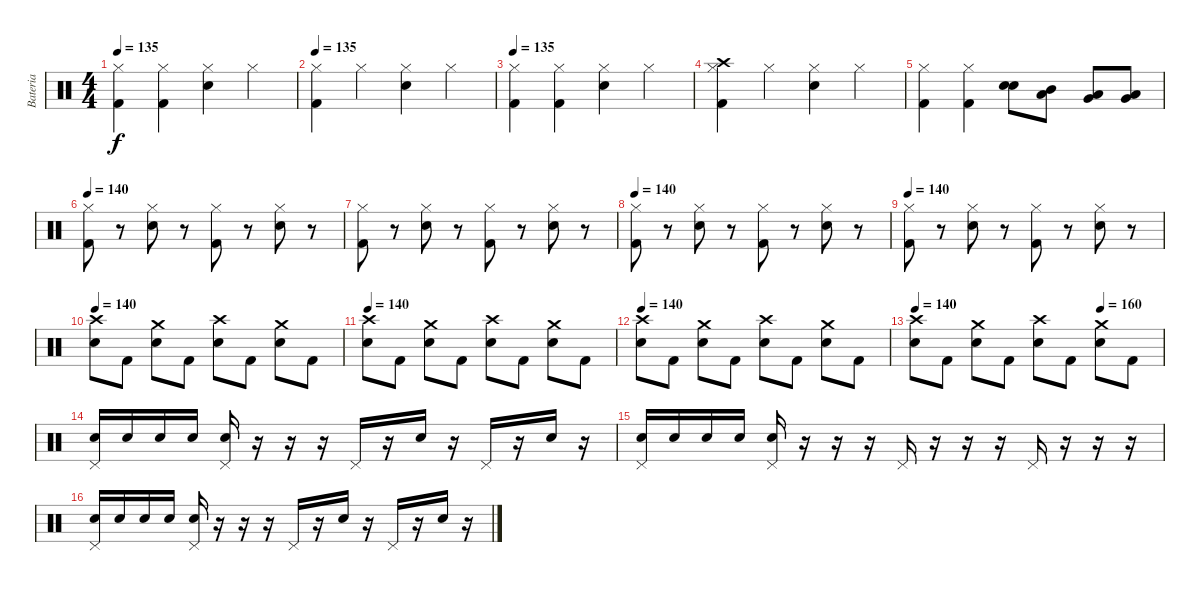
\track ("Bateria" "Bateria") {instrument percussion}
\staff {score}
\articulation defaults
\ts (4 4)
\tempo 135
\clef neutral
\ks c
("Hi-Hat (closed)" "Kick (hit) 2").4{dy f} ("Hi-Hat (closed)" "Kick (hit) 2").4 ("Hi-Hat (closed)" "Electric Snare (hit)").4 "Hi-Hat (closed)".4 |
\tempo 135
("Hi-Hat (closed)" "Kick (hit) 2").4 "Hi-Hat (closed)".4 ("Hi-Hat (closed)" "Electric Snare (hit)").4 "Hi-Hat (closed)".4 |
\tempo 135
("Hi-Hat (closed)" "Kick (hit) 2").4 ("Hi-Hat (closed)" "Kick (hit) 2").4 ("Hi-Hat (closed)" "Electric Snare (hit)").4 "Hi-Hat (closed)".4 |
("Hi-Hat (closed)" "Kick (hit) 2" "Crash high (hit)").4 "Hi-Hat (closed)".4 ("Hi-Hat (closed)" "Electric Snare (hit)").4 "Hi-Hat (closed)".4 |
("Hi-Hat (closed)" "Kick (hit) 2").4 ("Hi-Hat (closed)" "Kick (hit) 2").4 ("Electric Snare (hit)" "Electric Snare (hit)").8 ("Low Tom (hit)" "Mid Tom (hit)").8 ("Very Low Tom (hit)" "Low Tom (hit)").8 ("Low Floor Tom (hit)" "Very Low Tom (hit)").8 |
\tempo 140
("Hi-Hat (closed)" "Kick (hit) 2").8 r.8 ("Hi-Hat (closed)" "Electric Snare (hit)").8 r.8 ("Hi-Hat (closed)" "Kick (hit) 2").8 r.8 ("Hi-Hat (closed)" "Electric Snare (hit)").8 r.8 |
("Hi-Hat (closed)" "Kick (hit) 2").8 r.8 ("Hi-Hat (closed)" "Electric Snare (hit)").8 r.8 ("Hi-Hat (closed)" "Kick (hit) 2").8 r.8 ("Hi-Hat (closed)" "Electric Snare (hit)").8 r.8 |
\tempo 140
("Hi-Hat (closed)" "Kick (hit) 2").8 r.8 ("Hi-Hat (closed)" "Electric Snare (hit)").8 r.8 ("Hi-Hat (closed)" "Kick (hit) 2").8 r.8 ("Hi-Hat (closed)" "Electric Snare (hit)").8 r.8 |
\tempo 140
("Hi-Hat (closed)" "Kick (hit) 2").8 r.8 ("Hi-Hat (closed)" "Electric Snare (hit)").8 r.8 ("Hi-Hat (closed)" "Kick (hit) 2").8 r.8 ("Hi-Hat (closed)" "Electric Snare (hit)").8 r.8 |
\tempo 140
("Electric Snare (hit)" "Crash high (hit)").8 "Kick (hit) 2".8 ("Electric Snare (hit)" "Crash medium (hit)").8 "Kick (hit) 2".8 ("Electric Snare (hit)" "Crash high (hit)").8 "Kick (hit) 2".8 ("Electric Snare (hit)" "Crash medium (hit)").8 "Kick (hit) 2".8 |
\tempo 140
("Electric Snare (hit)" "Crash high (hit)").8 "Kick (hit) 2".8 ("Electric Snare (hit)" "Crash medium (hit)").8 "Kick (hit) 2".8 ("Electric Snare (hit)" "Crash high (hit)").8 "Kick (hit) 2".8 ("Electric Snare (hit)" "Crash medium (hit)").8 "Kick (hit) 2".8 |
\tempo 140
("Electric Snare (hit)" "Crash high (hit)").8 "Kick (hit) 2".8 ("Electric Snare (hit)" "Crash medium (hit)").8 "Kick (hit) 2".8 ("Electric Snare (hit)" "Crash high (hit)").8 "Kick (hit) 2".8 ("Electric Snare (hit)" "Crash medium (hit)").8 "Kick (hit) 2".8 |
\tempo (160 0.75)
\tempo 140
("Electric Snare (hit)" "Crash high (hit)").8 "Kick (hit) 2".8 ("Electric Snare (hit)" "Crash medium (hit)").8 "Kick (hit) 2".8 ("Electric Snare (hit)" "Crash high (hit)").8 "Kick (hit) 2".8 ("Electric Snare (hit)" "Crash medium (hit)").8 "Kick (hit) 2".8 |
("Pedal Hi-Hat (hit)" "Electric Snare (hit)").16 "Electric Snare (hit)".16 "Electric Snare (hit)".16 "Electric Snare (hit)".16 ("Pedal Hi-Hat (hit)" "Electric Snare (hit)").16 r.16 r.16 r.16 "Pedal Hi-Hat (hit)".16 r.16 "Electric Snare (hit)".16 r.16 "Pedal Hi-Hat (hit)".16 r.16 "Electric Snare (hit)".16 r.16 |
("Pedal Hi-Hat (hit)" "Electric Snare (hit)").16 "Electric Snare (hit)".16 "Electric Snare (hit)".16 "Electric Snare (hit)".16 ("Pedal Hi-Hat (hit)" "Electric Snare (hit)").16 r.16 r.16 r.16 "Pedal Hi-Hat (hit)".16 r.16 r.16 r.16 "Pedal Hi-Hat (hit)".16 r.16 r.16 r.16 |
("Pedal Hi-Hat (hit)" "Electric Snare (hit)").16 "Electric Snare (hit)".16 "Electric Snare (hit)".16 "Electric Snare (hit)".16 ("Pedal Hi-Hat (hit)" "Electric Snare (hit)").16 r.16 r.16 r.16 "Pedal Hi-Hat (hit)".16 r.16 "Electric Snare (hit)".16 r.16 "Pedal Hi-Hat (hit)".16 r.16 "Electric Snare (hit)".16 r.16
